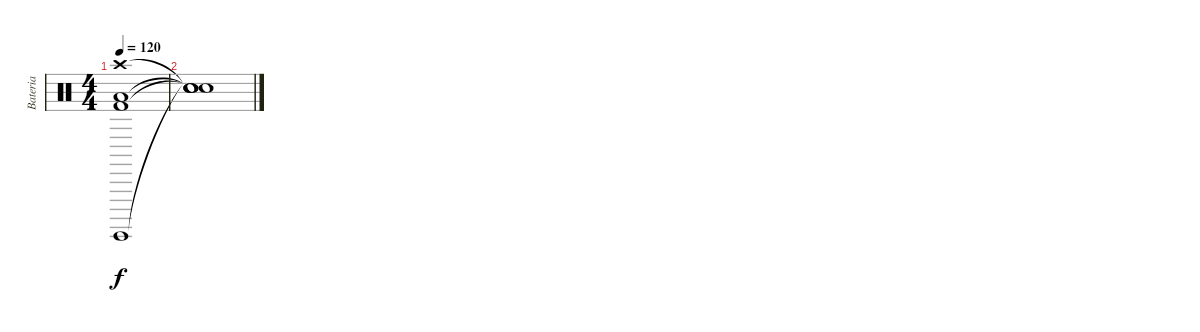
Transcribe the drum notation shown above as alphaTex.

\track ("Bateria" "Bateria") {instrument percussion}
\staff {score}
\articulation defaults
\ts (4 4)
\tempo 120
\clef neutral
\ks c
("Crash high (hit)" "Surdo (hit)" "Low Tom (hit)" "Kick (hit) 2").1{dy f} |
("Snare (hit)"{t} "Snare (hit)"{t} "Snare (hit)"{t} "Snare (hit)"{t}).1
